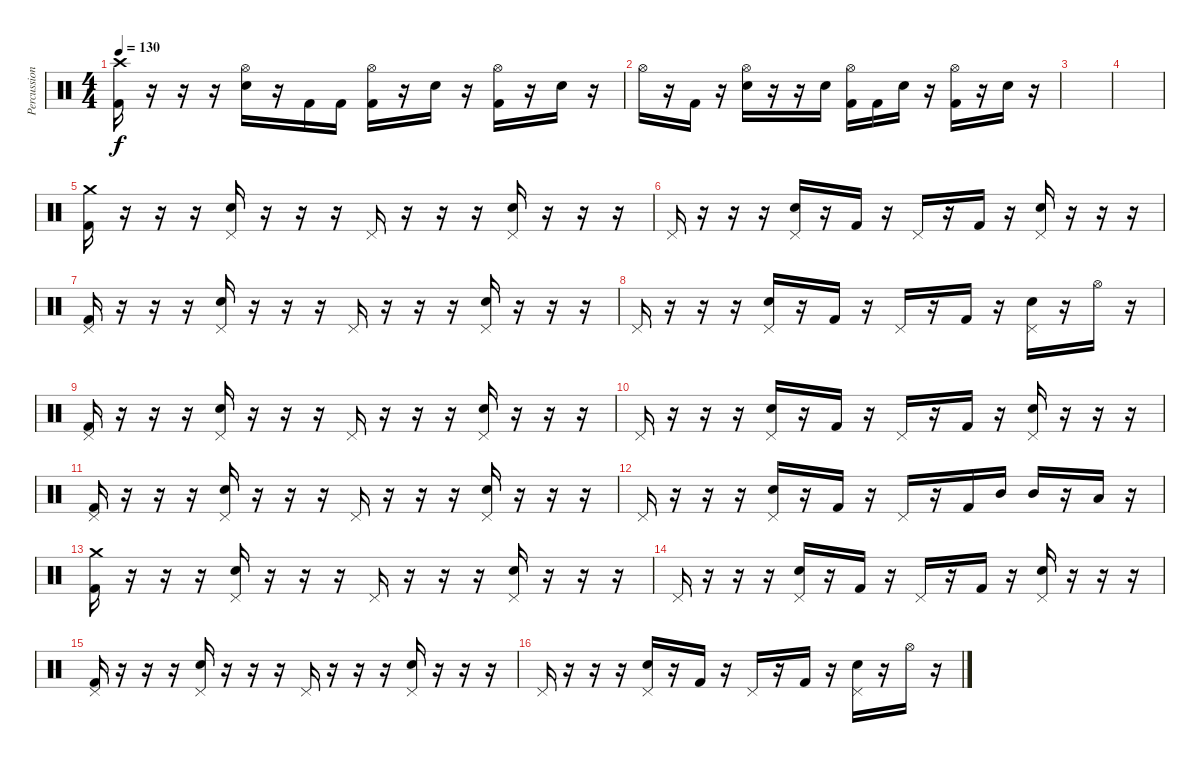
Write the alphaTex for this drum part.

\track ("Percussion" "Percussion") {instrument percussion bank 152}
\staff {score}
\articulation defaults
\ts (4 4)
\tempo 130
\clef neutral
\ks c
("Crash high (hit)" "Kick (hit) 2").16{dy f} r.16 r.16 r.16 ("Hi-Hat (open)" "Electric Snare (hit)").16 r.16 "Kick (hit) 2".16 "Kick (hit) 2".16 ("Hi-Hat (open)" "Kick (hit) 2").16 r.16 "Electric Snare (hit)".16 r.16 ("Hi-Hat (open)" "Kick (hit) 2").16 r.16 "Electric Snare (hit)".16 r.16 |
"Hi-Hat (open)".16 r.16 "Kick (hit) 2".16 r.16 ("Hi-Hat (open)" "Electric Snare (hit)").16 r.16 r.16 "Electric Snare (hit)".16 ("Hi-Hat (open)" "Kick (hit) 2").16 "Kick (hit) 2".16 "Electric Snare (hit)".16 r.16 ("Hi-Hat (open)" "Kick (hit) 2").16 r.16 "Electric Snare (hit)".16 r.16 |
|
|
("Crash medium (hit)" "Kick (hit) 2").16 r.16 r.16 r.16 ("Pedal Hi-Hat (hit)" "Electric Snare (hit)").16 r.16 r.16 r.16 "Pedal Hi-Hat (hit)".16 r.16 r.16 r.16 ("Pedal Hi-Hat (hit)" "Electric Snare (hit)").16 r.16 r.16 r.16 |
"Pedal Hi-Hat (hit)".16 r.16 r.16 r.16 ("Pedal Hi-Hat (hit)" "Electric Snare (hit)").16 r.16 "Kick (hit) 2".16 r.16 "Pedal Hi-Hat (hit)".16 r.16 "Kick (hit) 2".16 r.16 ("Pedal Hi-Hat (hit)" "Electric Snare (hit)").16 r.16 r.16 r.16 |
("Pedal Hi-Hat (hit)" "Kick (hit) 2").16 r.16 r.16 r.16 ("Pedal Hi-Hat (hit)" "Electric Snare (hit)").16 r.16 r.16 r.16 "Pedal Hi-Hat (hit)".16 r.16 r.16 r.16 ("Pedal Hi-Hat (hit)" "Electric Snare (hit)").16 r.16 r.16 r.16 |
"Pedal Hi-Hat (hit)".16 r.16 r.16 r.16 ("Pedal Hi-Hat (hit)" "Electric Snare (hit)").16 r.16 "Kick (hit) 2".16 r.16 "Pedal Hi-Hat (hit)".16 r.16 "Kick (hit) 2".16 r.16 ("Pedal Hi-Hat (hit)" "Electric Snare (hit)").16 r.16 "Hi-Hat (open)".16 r.16 |
("Pedal Hi-Hat (hit)" "Kick (hit) 2").16 r.16 r.16 r.16 ("Pedal Hi-Hat (hit)" "Electric Snare (hit)").16 r.16 r.16 r.16 "Pedal Hi-Hat (hit)".16 r.16 r.16 r.16 ("Pedal Hi-Hat (hit)" "Electric Snare (hit)").16 r.16 r.16 r.16 |
"Pedal Hi-Hat (hit)".16 r.16 r.16 r.16 ("Pedal Hi-Hat (hit)" "Electric Snare (hit)").16 r.16 "Kick (hit) 2".16 r.16 "Pedal Hi-Hat (hit)".16 r.16 "Kick (hit) 2".16 r.16 ("Pedal Hi-Hat (hit)" "Electric Snare (hit)").16 r.16 r.16 r.16 |
("Pedal Hi-Hat (hit)" "Kick (hit) 2").16 r.16 r.16 r.16 ("Pedal Hi-Hat (hit)" "Electric Snare (hit)").16 r.16 r.16 r.16 "Pedal Hi-Hat (hit)".16 r.16 r.16 r.16 ("Pedal Hi-Hat (hit)" "Electric Snare (hit)").16 r.16 r.16 r.16 |
"Pedal Hi-Hat (hit)".16 r.16 r.16 r.16 ("Pedal Hi-Hat (hit)" "Electric Snare (hit)").16 r.16 "Kick (hit) 2".16 r.16 "Pedal Hi-Hat (hit)".16 r.16 "Kick (hit) 2".16 "Mid Tom (hit)".16 "Mid Tom (hit)".16 r.16 "Low Tom (hit)".16 r.16 |
("Crash medium (hit)" "Kick (hit) 2").16 r.16 r.16 r.16 ("Pedal Hi-Hat (hit)" "Electric Snare (hit)").16 r.16 r.16 r.16 "Pedal Hi-Hat (hit)".16 r.16 r.16 r.16 ("Pedal Hi-Hat (hit)" "Electric Snare (hit)").16 r.16 r.16 r.16 |
"Pedal Hi-Hat (hit)".16 r.16 r.16 r.16 ("Pedal Hi-Hat (hit)" "Electric Snare (hit)").16 r.16 "Kick (hit) 2".16 r.16 "Pedal Hi-Hat (hit)".16 r.16 "Kick (hit) 2".16 r.16 ("Pedal Hi-Hat (hit)" "Electric Snare (hit)").16 r.16 r.16 r.16 |
("Pedal Hi-Hat (hit)" "Kick (hit) 2").16 r.16 r.16 r.16 ("Pedal Hi-Hat (hit)" "Electric Snare (hit)").16 r.16 r.16 r.16 "Pedal Hi-Hat (hit)".16 r.16 r.16 r.16 ("Pedal Hi-Hat (hit)" "Electric Snare (hit)").16 r.16 r.16 r.16 |
"Pedal Hi-Hat (hit)".16 r.16 r.16 r.16 ("Pedal Hi-Hat (hit)" "Electric Snare (hit)").16 r.16 "Kick (hit) 2".16 r.16 "Pedal Hi-Hat (hit)".16 r.16 "Kick (hit) 2".16 r.16 ("Pedal Hi-Hat (hit)" "Electric Snare (hit)").16 r.16 "Hi-Hat (open)".16 r.16
